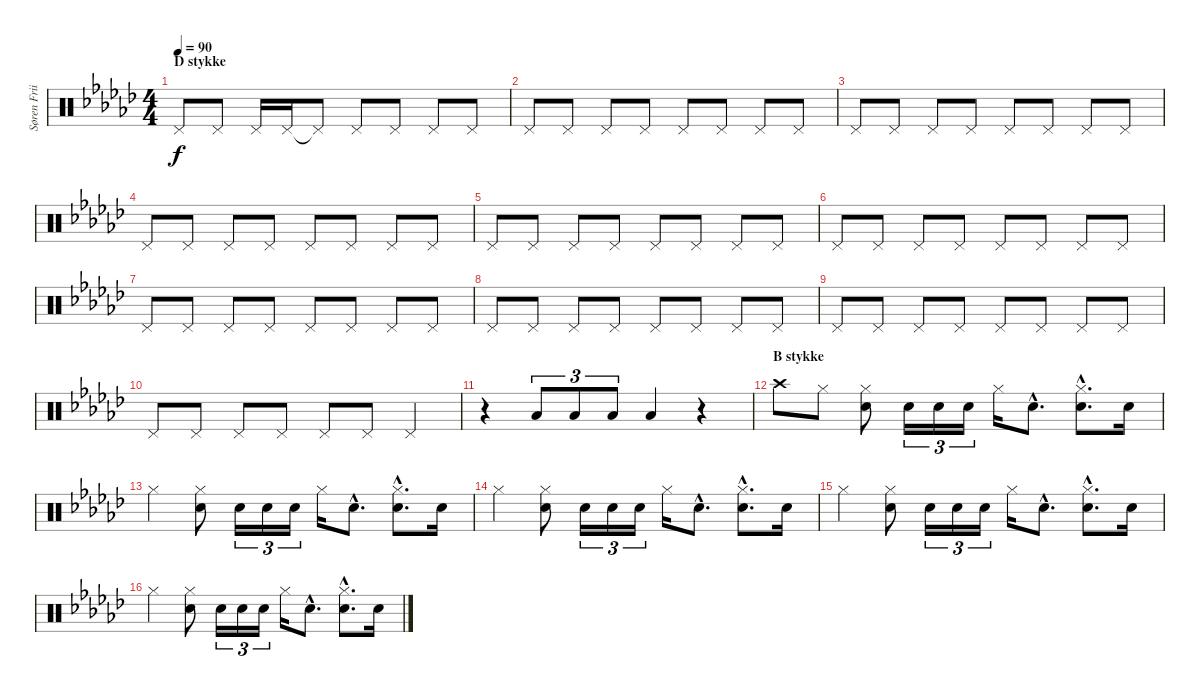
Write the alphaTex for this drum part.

\track ("Søren Friis (Drums)" "Søren Frii") {instrument percussion}
\staff {score}
\articulation defaults
\ts (4 4)
\section ("" "D stykke")
\tempo 90
\clef neutral
\ks gb "Pedal Hi-Hat (hit)".8{dy f} "Pedal Hi-Hat (hit)".8 "Pedal Hi-Hat (hit)".16 "Pedal Hi-Hat (hit)".16 "Pedal Hi-Hat (hit)"{t}.8 "Pedal Hi-Hat (hit)".8 "Pedal Hi-Hat (hit)".8 "Pedal Hi-Hat (hit)".8 "Pedal Hi-Hat (hit)".8
|
"Pedal Hi-Hat (hit)".8 "Pedal Hi-Hat (hit)".8 "Pedal Hi-Hat (hit)".8 "Pedal Hi-Hat (hit)".8 "Pedal Hi-Hat (hit)".8 "Pedal Hi-Hat (hit)".8 "Pedal Hi-Hat (hit)".8 "Pedal Hi-Hat (hit)".8 |
"Pedal Hi-Hat (hit)".8 "Pedal Hi-Hat (hit)".8 "Pedal Hi-Hat (hit)".8 "Pedal Hi-Hat (hit)".8 "Pedal Hi-Hat (hit)".8 "Pedal Hi-Hat (hit)".8 "Pedal Hi-Hat (hit)".8 "Pedal Hi-Hat (hit)".8 |
"Pedal Hi-Hat (hit)".8 "Pedal Hi-Hat (hit)".8 "Pedal Hi-Hat (hit)".8 "Pedal Hi-Hat (hit)".8 "Pedal Hi-Hat (hit)".8 "Pedal Hi-Hat (hit)".8 "Pedal Hi-Hat (hit)".8 "Pedal Hi-Hat (hit)".8 |
"Pedal Hi-Hat (hit)".8 "Pedal Hi-Hat (hit)".8 "Pedal Hi-Hat (hit)".8 "Pedal Hi-Hat (hit)".8 "Pedal Hi-Hat (hit)".8 "Pedal Hi-Hat (hit)".8 "Pedal Hi-Hat (hit)".8 "Pedal Hi-Hat (hit)".8 |
"Pedal Hi-Hat (hit)".8 "Pedal Hi-Hat (hit)".8 "Pedal Hi-Hat (hit)".8 "Pedal Hi-Hat (hit)".8 "Pedal Hi-Hat (hit)".8 "Pedal Hi-Hat (hit)".8 "Pedal Hi-Hat (hit)".8 "Pedal Hi-Hat (hit)".8 |
"Pedal Hi-Hat (hit)".8 "Pedal Hi-Hat (hit)".8 "Pedal Hi-Hat (hit)".8 "Pedal Hi-Hat (hit)".8 "Pedal Hi-Hat (hit)".8 "Pedal Hi-Hat (hit)".8 "Pedal Hi-Hat (hit)".8 "Pedal Hi-Hat (hit)".8 |
"Pedal Hi-Hat (hit)".8 "Pedal Hi-Hat (hit)".8 "Pedal Hi-Hat (hit)".8 "Pedal Hi-Hat (hit)".8 "Pedal Hi-Hat (hit)".8 "Pedal Hi-Hat (hit)".8 "Pedal Hi-Hat (hit)".8 "Pedal Hi-Hat (hit)".8 |
"Pedal Hi-Hat (hit)".8 "Pedal Hi-Hat (hit)".8 "Pedal Hi-Hat (hit)".8 "Pedal Hi-Hat (hit)".8 "Pedal Hi-Hat (hit)".8 "Pedal Hi-Hat (hit)".8 "Pedal Hi-Hat (hit)".8 "Pedal Hi-Hat (hit)".8 |
"Pedal Hi-Hat (hit)".8 "Pedal Hi-Hat (hit)".8 "Pedal Hi-Hat (hit)".8 "Pedal Hi-Hat (hit)".8 "Pedal Hi-Hat (hit)".8 "Pedal Hi-Hat (hit)".8 "Pedal Hi-Hat (hit)".4 |
r.4 "Low Floor Tom (hit)".8{tu (3 2)} "Low Floor Tom (hit)".8{tu (3 2)} "Low Floor Tom (hit)".8{tu (3 2)} "Low Floor Tom (hit)".4 r.4 |
\section ("" "B stykke")
"Crash high (hit)".8 "Hi-Hat (closed)".8 ("Hi-Hat (closed)" "Snare (hit) 2").8 "Snare (hit) 2".16{tu (3 2)} "Snare (hit) 2".16{tu (3 2)} "Snare (hit) 2".16{tu (3 2)} "Hi-Hat (closed)".16 "Snare (hit) 2"{hac}.8{d} ("Hi-Hat (closed)"{hac} "Snare (hit) 2"{hac}).8{d} "Snare (hit) 2".16 |
"Hi-Hat (closed)".4 ("Hi-Hat (closed)" "Snare (hit) 2").8 "Snare (hit) 2".16{tu (3 2)} "Snare (hit) 2".16{tu (3 2)} "Snare (hit) 2".16{tu (3 2)} "Hi-Hat (closed)".16 "Snare (hit) 2"{hac}.8{d} ("Hi-Hat (closed)"{hac} "Snare (hit) 2"{hac}).8{d} "Snare (hit) 2".16 |
"Hi-Hat (closed)".4 ("Hi-Hat (closed)" "Snare (hit) 2").8 "Snare (hit) 2".16{tu (3 2)} "Snare (hit) 2".16{tu (3 2)} "Snare (hit) 2".16{tu (3 2)} "Hi-Hat (closed)".16 "Snare (hit) 2"{hac}.8{d} ("Hi-Hat (closed)"{hac} "Snare (hit) 2"{hac}).8{d} "Snare (hit) 2".16 |
"Hi-Hat (closed)".4 ("Hi-Hat (closed)" "Snare (hit) 2").8 "Snare (hit) 2".16{tu (3 2)} "Snare (hit) 2".16{tu (3 2)} "Snare (hit) 2".16{tu (3 2)} "Hi-Hat (closed)".16 "Snare (hit) 2"{hac}.8{d} ("Hi-Hat (closed)"{hac} "Snare (hit) 2"{hac}).8{d} "Snare (hit) 2".16 |
"Hi-Hat (closed)".4 ("Hi-Hat (closed)" "Snare (hit) 2").8 "Snare (hit) 2".16{tu (3 2)} "Snare (hit) 2".16{tu (3 2)} "Snare (hit) 2".16{tu (3 2)} "Hi-Hat (closed)".16 "Snare (hit) 2"{hac}.8{d} ("Hi-Hat (closed)"{hac} "Snare (hit) 2"{hac}).8{d} "Snare (hit) 2".16
